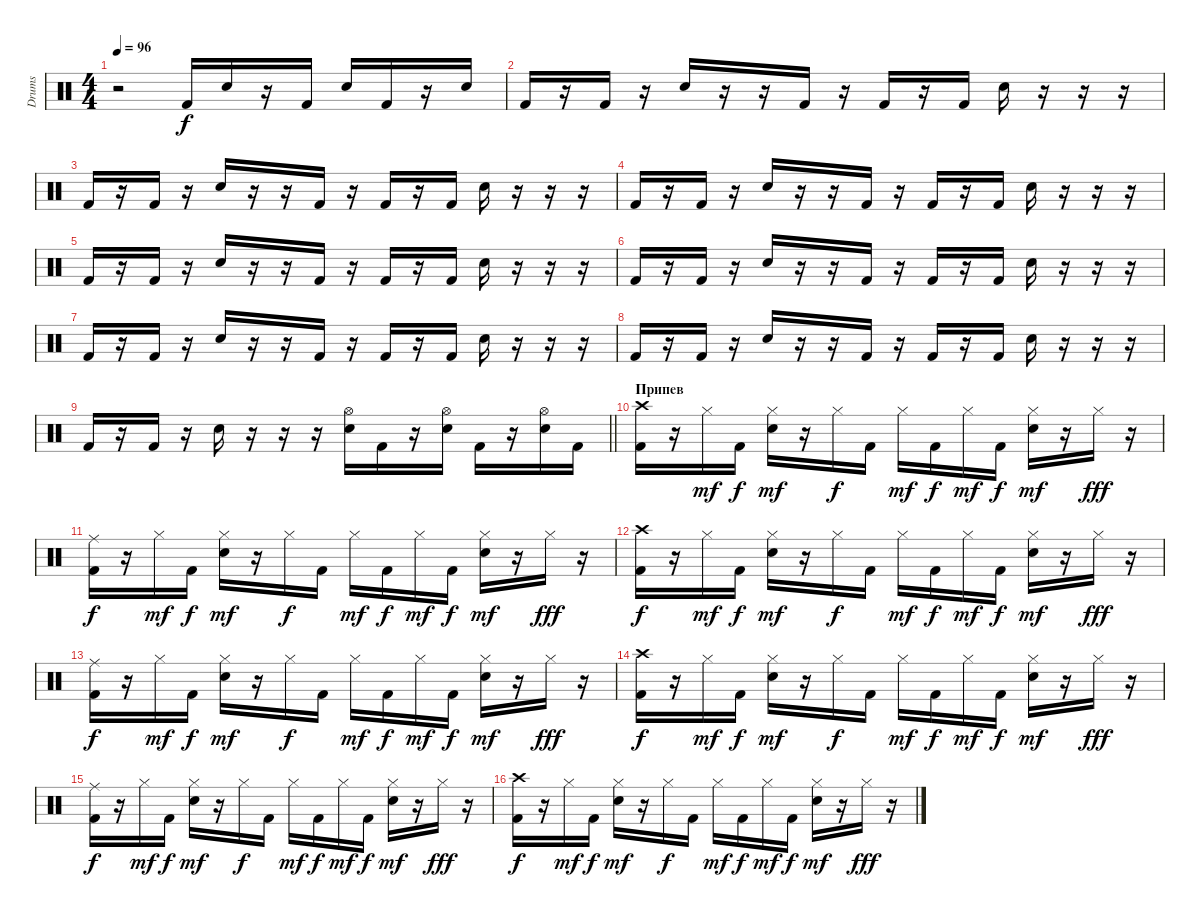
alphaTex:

\track ("Drums" "Drums") {instrument percussion}
\staff {score}
\articulation defaults
\ts (4 4)
\tempo 96
\clef neutral
\ks c
r.2{dy f} "Kick (hit) 2".16 "Electric Snare (hit)".16 r.16 "Kick (hit) 2".16 "Electric Snare (hit)".16 "Kick (hit) 2".16 r.16 "Electric Snare (hit)".16 |
"Kick (hit) 2".16 r.16 "Kick (hit) 2".16 r.16 "Electric Snare (hit)".16 r.16 r.16 "Kick (hit) 2".16 r.16 "Kick (hit) 2".16 r.16 "Kick (hit) 2".16 "Electric Snare (hit)".16 r.16 r.16 r.16 |
"Kick (hit) 2".16 r.16 "Kick (hit) 2".16 r.16 "Electric Snare (hit)".16 r.16 r.16 "Kick (hit) 2".16 r.16 "Kick (hit) 2".16 r.16 "Kick (hit) 2".16 "Electric Snare (hit)".16 r.16 r.16 r.16 |
"Kick (hit) 2".16 r.16 "Kick (hit) 2".16 r.16 "Electric Snare (hit)".16 r.16 r.16 "Kick (hit) 2".16 r.16 "Kick (hit) 2".16 r.16 "Kick (hit) 2".16 "Electric Snare (hit)".16 r.16 r.16 r.16 |
"Kick (hit) 2".16 r.16 "Kick (hit) 2".16 r.16 "Electric Snare (hit)".16 r.16 r.16 "Kick (hit) 2".16 r.16 "Kick (hit) 2".16 r.16 "Kick (hit) 2".16 "Electric Snare (hit)".16 r.16 r.16 r.16 |
"Kick (hit) 2".16 r.16 "Kick (hit) 2".16 r.16 "Electric Snare (hit)".16 r.16 r.16 "Kick (hit) 2".16 r.16 "Kick (hit) 2".16 r.16 "Kick (hit) 2".16 "Electric Snare (hit)".16 r.16 r.16 r.16 |
"Kick (hit) 2".16 r.16 "Kick (hit) 2".16 r.16 "Electric Snare (hit)".16 r.16 r.16 "Kick (hit) 2".16 r.16 "Kick (hit) 2".16 r.16 "Kick (hit) 2".16 "Electric Snare (hit)".16 r.16 r.16 r.16 |
"Kick (hit) 2".16 r.16 "Kick (hit) 2".16 r.16 "Electric Snare (hit)".16 r.16 r.16 "Kick (hit) 2".16 r.16 "Kick (hit) 2".16 r.16 "Kick (hit) 2".16 "Electric Snare (hit)".16 r.16 r.16 r.16 |
\barLineRight lightlight "Kick (hit) 2".16
r.16 "Kick (hit) 2".16 r.16 "Electric Snare (hit)".16 r.16 r.16 r.16 ("Hi-Hat (open)" "Electric Snare (hit)").16 "Kick (hit) 2".16 r.16 ("Hi-Hat (open)" "Electric Snare (hit)").16 "Kick (hit) 2".16 r.16 ("Hi-Hat (open)" "Electric Snare (hit)").16 "Kick (hit) 2".16 |
\section ("" "Припев")
("Crash high (hit)" "Kick (hit) 2").16 r.16 "Hi-Hat (closed)".16{dy mf} "Kick (hit) 2".16{dy f} ("Hi-Hat (closed)" "Electric Snare (hit)").16{dy mf} r.16 "Hi-Hat (closed)".16{dy f} "Kick (hit) 2".16 "Hi-Hat (closed)".16{dy mf} "Kick (hit) 2".16{dy f} "Hi-Hat (closed)".16{dy mf} "Kick (hit) 2".16{dy f} ("Hi-Hat (closed)" "Electric Snare (hit)").16{dy mf} r.16 "Hi-Hat (closed)".16{dy fff} r.16 |
("Ride (middle)" "Kick (hit) 2").16{dy f} r.16 "Hi-Hat (closed)".16{dy mf} "Kick (hit) 2".16{dy f} ("Hi-Hat (closed)" "Electric Snare (hit)").16{dy mf} r.16 "Hi-Hat (closed)".16{dy f} "Kick (hit) 2".16 "Hi-Hat (closed)".16{dy mf} "Kick (hit) 2".16{dy f} "Hi-Hat (closed)".16{dy mf} "Kick (hit) 2".16{dy f} ("Hi-Hat (closed)" "Electric Snare (hit)").16{dy mf} r.16 "Hi-Hat (closed)".16{dy fff} r.16 |
("Crash high (hit)" "Kick (hit) 2").16{dy f} r.16 "Hi-Hat (closed)".16{dy mf} "Kick (hit) 2".16{dy f} ("Hi-Hat (closed)" "Electric Snare (hit)").16{dy mf} r.16 "Hi-Hat (closed)".16{dy f} "Kick (hit) 2".16 "Hi-Hat (closed)".16{dy mf} "Kick (hit) 2".16{dy f} "Hi-Hat (closed)".16{dy mf} "Kick (hit) 2".16{dy f} ("Hi-Hat (closed)" "Electric Snare (hit)").16{dy mf} r.16 "Hi-Hat (closed)".16{dy fff} r.16 |
("Ride (middle)" "Kick (hit) 2").16{dy f} r.16 "Hi-Hat (closed)".16{dy mf} "Kick (hit) 2".16{dy f} ("Hi-Hat (closed)" "Electric Snare (hit)").16{dy mf} r.16 "Hi-Hat (closed)".16{dy f} "Kick (hit) 2".16 "Hi-Hat (closed)".16{dy mf} "Kick (hit) 2".16{dy f} "Hi-Hat (closed)".16{dy mf} "Kick (hit) 2".16{dy f} ("Hi-Hat (closed)" "Electric Snare (hit)").16{dy mf} r.16 "Hi-Hat (closed)".16{dy fff} r.16 |
("Crash high (hit)" "Kick (hit) 2").16{dy f} r.16 "Hi-Hat (closed)".16{dy mf} "Kick (hit) 2".16{dy f} ("Hi-Hat (closed)" "Electric Snare (hit)").16{dy mf} r.16 "Hi-Hat (closed)".16{dy f} "Kick (hit) 2".16 "Hi-Hat (closed)".16{dy mf} "Kick (hit) 2".16{dy f} "Hi-Hat (closed)".16{dy mf} "Kick (hit) 2".16{dy f} ("Hi-Hat (closed)" "Electric Snare (hit)").16{dy mf} r.16 "Hi-Hat (closed)".16{dy fff} r.16 |
("Ride (middle)" "Kick (hit) 2").16{dy f} r.16 "Hi-Hat (closed)".16{dy mf} "Kick (hit) 2".16{dy f} ("Hi-Hat (closed)" "Electric Snare (hit)").16{dy mf} r.16 "Hi-Hat (closed)".16{dy f} "Kick (hit) 2".16 "Hi-Hat (closed)".16{dy mf} "Kick (hit) 2".16{dy f} "Hi-Hat (closed)".16{dy mf} "Kick (hit) 2".16{dy f} ("Hi-Hat (closed)" "Electric Snare (hit)").16{dy mf} r.16 "Hi-Hat (closed)".16{dy fff} r.16 |
("Crash high (hit)" "Kick (hit) 2").16{dy f} r.16 "Hi-Hat (closed)".16{dy mf} "Kick (hit) 2".16{dy f} ("Hi-Hat (closed)" "Electric Snare (hit)").16{dy mf} r.16 "Hi-Hat (closed)".16{dy f} "Kick (hit) 2".16 "Hi-Hat (closed)".16{dy mf} "Kick (hit) 2".16{dy f} "Hi-Hat (closed)".16{dy mf} "Kick (hit) 2".16{dy f} ("Hi-Hat (closed)" "Electric Snare (hit)").16{dy mf} r.16 "Hi-Hat (closed)".16{dy fff} r.16
